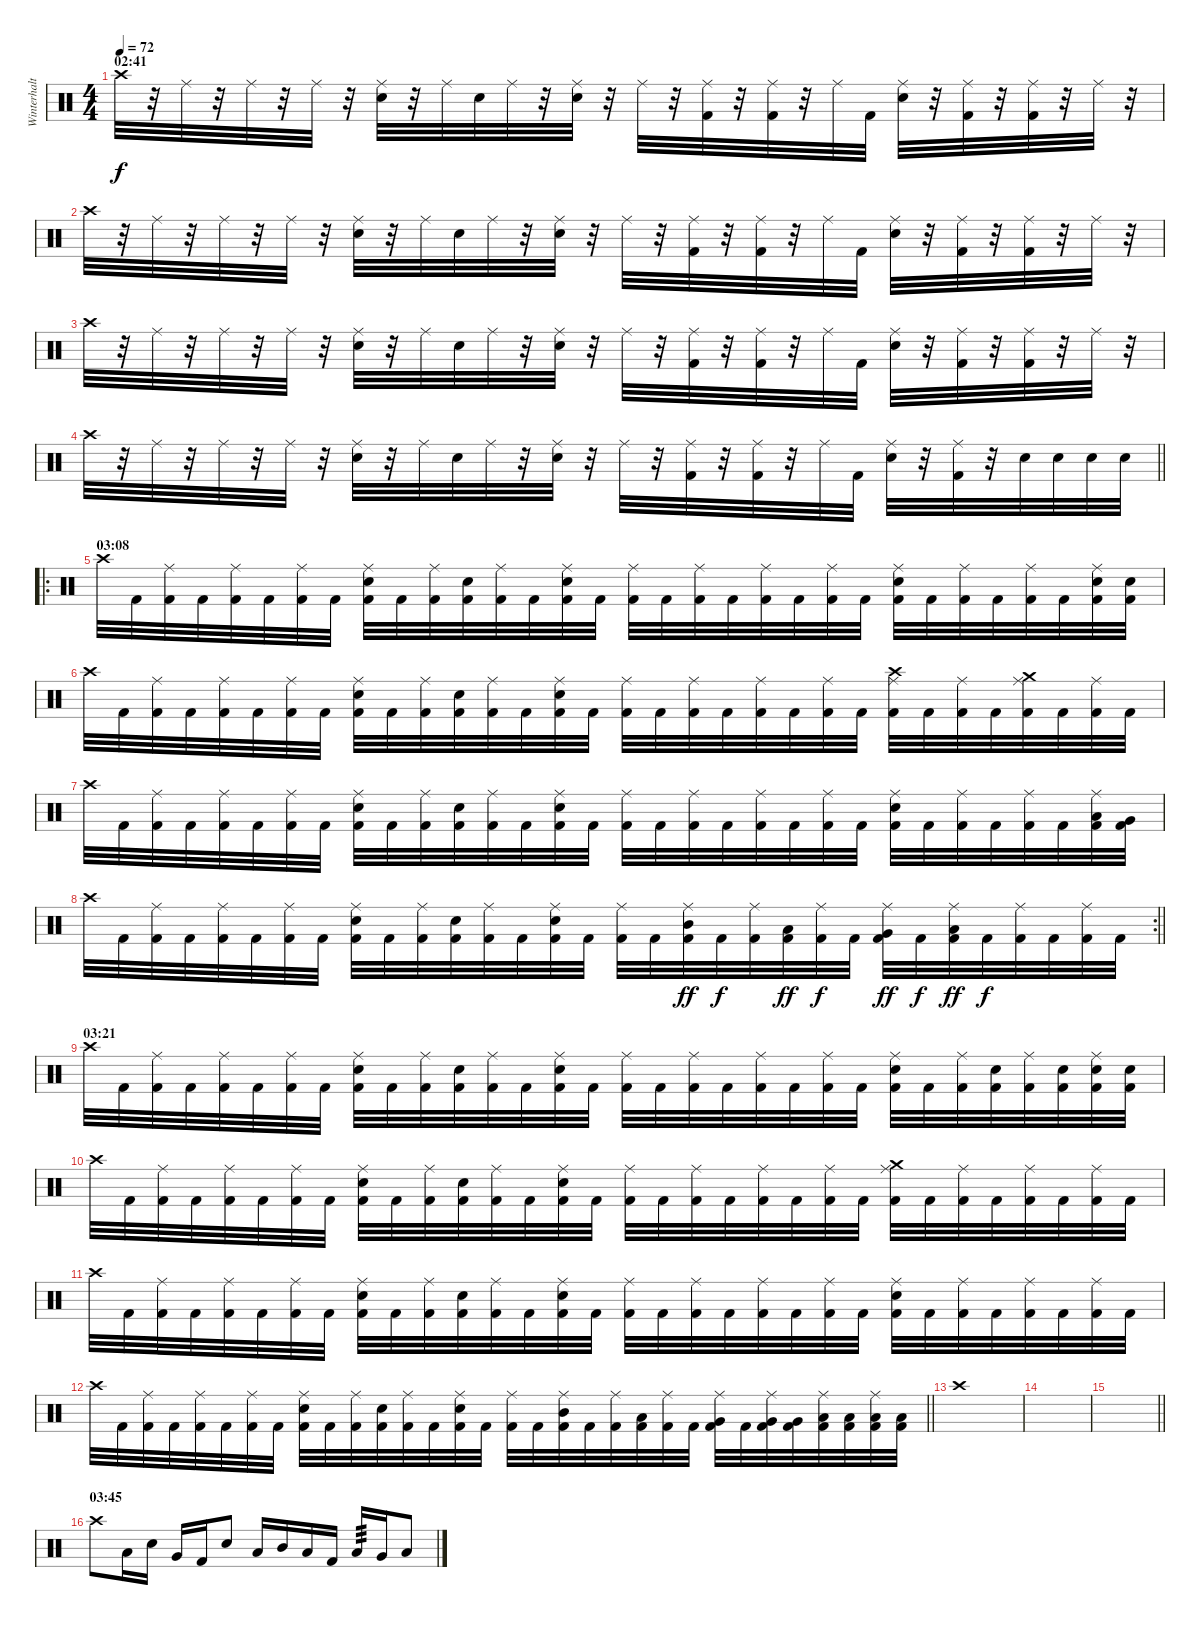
\track ("Winterhalten" "Winterhalt") {instrument percussion}
\staff {score}
\articulation defaults
\ts (4 4)
\section ("" "02:41")
\tempo 72
\clef neutral
\ks c "Crash high (hit)".32{dy f}
r.32 "Ride (middle)".32 r.32 "Ride (middle)".32 r.32 "Ride (middle)".32 r.32 ("Ride (middle)" "Electric Snare (hit)").32 r.32 "Ride (middle)".32 "Electric Snare (hit)".32 "Ride (middle)".32 r.32 ("Ride (middle)" "Electric Snare (hit)").32 r.32 "Ride (middle)".32 r.32 ("Ride (middle)" "Kick (hit) 2").32 r.32 ("Ride (middle)" "Kick (hit) 2").32 r.32 "Ride (middle)".32 "Kick (hit) 2".32 ("Ride (middle)" "Electric Snare (hit)").32 r.32 ("Ride (middle)" "Kick (hit) 2").32 r.32 ("Ride (middle)" "Kick (hit) 2").32 r.32 "Ride (middle)".32 r.32 |
"Crash high (hit)".32 r.32 "Ride (middle)".32 r.32 "Ride (middle)".32 r.32 "Ride (middle)".32 r.32 ("Ride (middle)" "Electric Snare (hit)").32 r.32 "Ride (middle)".32 "Electric Snare (hit)".32 "Ride (middle)".32 r.32 ("Ride (middle)" "Electric Snare (hit)").32 r.32 "Ride (middle)".32 r.32 ("Ride (middle)" "Kick (hit) 2").32 r.32 ("Ride (middle)" "Kick (hit) 2").32 r.32 "Ride (middle)".32 "Kick (hit) 2".32 ("Ride (middle)" "Electric Snare (hit)").32 r.32 ("Ride (middle)" "Kick (hit) 2").32 r.32 ("Ride (middle)" "Kick (hit) 2").32 r.32 "Ride (middle)".32 r.32 |
"Crash high (hit)".32 r.32 "Ride (middle)".32 r.32 "Ride (middle)".32 r.32 "Ride (middle)".32 r.32 ("Ride (middle)" "Electric Snare (hit)").32 r.32 "Ride (middle)".32 "Electric Snare (hit)".32 "Ride (middle)".32 r.32 ("Ride (middle)" "Electric Snare (hit)").32 r.32 "Ride (middle)".32 r.32 ("Ride (middle)" "Kick (hit) 2").32 r.32 ("Ride (middle)" "Kick (hit) 2").32 r.32 "Ride (middle)".32 "Kick (hit) 2".32 ("Ride (middle)" "Electric Snare (hit)").32 r.32 ("Ride (middle)" "Kick (hit) 2").32 r.32 ("Ride (middle)" "Kick (hit) 2").32 r.32 "Ride (middle)".32 r.32 |
\barLineRight lightlight "Crash high (hit)".32
r.32 "Ride (middle)".32 r.32 "Ride (middle)".32 r.32 "Ride (middle)".32 r.32 ("Ride (middle)" "Electric Snare (hit)").32 r.32 "Ride (middle)".32 "Electric Snare (hit)".32 "Ride (middle)".32 r.32 ("Ride (middle)" "Electric Snare (hit)").32 r.32 "Ride (middle)".32 r.32 ("Ride (middle)" "Kick (hit) 2").32 r.32 ("Ride (middle)" "Kick (hit) 2").32 r.32 "Ride (middle)".32 "Kick (hit) 2".32 ("Ride (middle)" "Electric Snare (hit)").32 r.32 ("Ride (middle)" "Kick (hit) 2").32 r.32 "Electric Snare (hit)".32 "Electric Snare (hit)".32 "Electric Snare (hit)".32 "Electric Snare (hit)".32 |
\ro
\section ("" "03:08")
"Crash high (hit)".32 "Kick (hit) 2".32 ("Ride (middle)" "Kick (hit) 2").32 "Kick (hit) 2".32 ("Ride (middle)" "Kick (hit) 2").32 "Kick (hit) 2".32 ("Ride (middle)" "Kick (hit) 2").32 "Kick (hit) 2".32 ("Ride (middle)" "Electric Snare (hit)" "Kick (hit) 2").32 "Kick (hit) 2".32 ("Ride (middle)" "Kick (hit) 2").32 ("Electric Snare (hit)" "Kick (hit) 2").32 ("Ride (middle)" "Kick (hit) 2").32 "Kick (hit) 2".32 ("Ride (middle)" "Electric Snare (hit)" "Kick (hit) 2").32 "Kick (hit) 2".32 ("Ride (middle)" "Kick (hit) 2").32 "Kick (hit) 2".32 ("Ride (middle)" "Kick (hit) 2").32 "Kick (hit) 2".32 ("Ride (middle)" "Kick (hit) 2").32 "Kick (hit) 2".32 ("Ride (middle)" "Kick (hit) 2").32 "Kick (hit) 2".32 ("Ride (middle)" "Electric Snare (hit)" "Kick (hit) 2").32 "Kick (hit) 2".32 ("Ride (middle)" "Kick (hit) 2").32 "Kick (hit) 2".32 ("Ride (middle)" "Kick (hit) 2").32 "Kick (hit) 2".32 ("Ride (middle)" "Electric Snare (hit)" "Kick (hit) 2").32 ("Electric Snare (hit)" "Kick (hit) 2").32 |
"Crash high (hit)".32 "Kick (hit) 2".32 ("Ride (middle)" "Kick (hit) 2").32 "Kick (hit) 2".32 ("Ride (middle)" "Kick (hit) 2").32 "Kick (hit) 2".32 ("Ride (middle)" "Kick (hit) 2").32 "Kick (hit) 2".32 ("Ride (middle)" "Electric Snare (hit)" "Kick (hit) 2").32 "Kick (hit) 2".32 ("Ride (middle)" "Kick (hit) 2").32 ("Electric Snare (hit)" "Kick (hit) 2").32 ("Ride (middle)" "Kick (hit) 2").32 "Kick (hit) 2".32 ("Ride (middle)" "Electric Snare (hit)" "Kick (hit) 2").32 "Kick (hit) 2".32 ("Ride (middle)" "Kick (hit) 2").32 "Kick (hit) 2".32 ("Ride (middle)" "Kick (hit) 2").32 "Kick (hit) 2".32 ("Ride (middle)" "Kick (hit) 2").32 "Kick (hit) 2".32 ("Ride (middle)" "Kick (hit) 2").32 "Kick (hit) 2".32 ("Crash high (hit)" "Ride (middle)" "Kick (hit) 2").32 "Kick (hit) 2".32 ("Ride (middle)" "Kick (hit) 2").32 "Kick (hit) 2".32 ("Crash medium (hit)" "Ride (middle)" "Kick (hit) 2").32 "Kick (hit) 2".32 ("Ride (middle)" "Kick (hit) 2").32 "Kick (hit) 2".32 |
"Crash high (hit)".32 "Kick (hit) 2".32 ("Ride (middle)" "Kick (hit) 2").32 "Kick (hit) 2".32 ("Ride (middle)" "Kick (hit) 2").32 "Kick (hit) 2".32 ("Ride (middle)" "Kick (hit) 2").32 "Kick (hit) 2".32 ("Ride (middle)" "Electric Snare (hit)" "Kick (hit) 2").32 "Kick (hit) 2".32 ("Ride (middle)" "Kick (hit) 2").32 ("Electric Snare (hit)" "Kick (hit) 2").32 ("Ride (middle)" "Kick (hit) 2").32 "Kick (hit) 2".32 ("Ride (middle)" "Electric Snare (hit)" "Kick (hit) 2").32 "Kick (hit) 2".32 ("Ride (middle)" "Kick (hit) 2").32 "Kick (hit) 2".32 ("Ride (middle)" "Kick (hit) 2").32 "Kick (hit) 2".32 ("Ride (middle)" "Kick (hit) 2").32 "Kick (hit) 2".32 ("Ride (middle)" "Kick (hit) 2").32 "Kick (hit) 2".32 ("Ride (middle)" "Electric Snare (hit)" "Kick (hit) 2").32 "Kick (hit) 2".32 ("Ride (middle)" "Kick (hit) 2").32 "Kick (hit) 2".32 ("Ride (middle)" "Kick (hit) 2").32 "Kick (hit) 2".32 ("Ride (middle)" "Low Tom (hit)" "Kick (hit) 2").32 ("Very Low Tom (hit)" "Kick (hit) 2").32 |
\rc 2
\barLineRight lightlight "Crash high (hit)".32 "Kick (hit) 2".32
("Ride (middle)" "Kick (hit) 2").32 "Kick (hit) 2".32 ("Ride (middle)" "Kick (hit) 2").32 "Kick (hit) 2".32 ("Ride (middle)" "Kick (hit) 2").32 "Kick (hit) 2".32 ("Ride (middle)" "Electric Snare (hit)" "Kick (hit) 2").32 "Kick (hit) 2".32 ("Ride (middle)" "Kick (hit) 2").32 ("Electric Snare (hit)" "Kick (hit) 2").32 ("Ride (middle)" "Kick (hit) 2").32 "Kick (hit) 2".32 ("Ride (middle)" "Electric Snare (hit)" "Kick (hit) 2").32 "Kick (hit) 2".32 ("Ride (middle)" "Kick (hit) 2").32 "Kick (hit) 2".32 ("Ride (middle)" "Mid Tom (hit)" "Kick (hit) 2").32{dy ff} "Kick (hit) 2".32{dy f} ("Ride (middle)" "Kick (hit) 2").32 ("Low Tom (hit)" "Kick (hit) 2").32{dy ff} ("Ride (middle)" "Kick (hit) 2").32{dy f} "Kick (hit) 2".32 ("Ride (middle)" "Very Low Tom (hit)" "Kick (hit) 2").32{dy ff} "Kick (hit) 2".32{dy f} ("Ride (middle)" "Low Floor Tom (hit)" "Kick (hit) 2").32{dy ff} "Kick (hit) 2".32{dy f} ("Ride (middle)" "Kick (hit) 2").32 "Kick (hit) 2".32 ("Ride (middle)" "Kick (hit) 2").32 "Kick (hit) 2".32 |
\section ("" "03:21")
"Crash high (hit)".32 "Kick (hit) 2".32 ("Ride (middle)" "Kick (hit) 2").32 "Kick (hit) 2".32 ("Ride (middle)" "Kick (hit) 2").32 "Kick (hit) 2".32 ("Ride (middle)" "Kick (hit) 2").32 "Kick (hit) 2".32 ("Ride (middle)" "Electric Snare (hit)" "Kick (hit) 2").32 "Kick (hit) 2".32 ("Ride (middle)" "Kick (hit) 2").32 ("Electric Snare (hit)" "Kick (hit) 2").32 ("Ride (middle)" "Kick (hit) 2").32 "Kick (hit) 2".32 ("Ride (middle)" "Electric Snare (hit)" "Kick (hit) 2").32 "Kick (hit) 2".32 ("Ride (middle)" "Kick (hit) 2").32 "Kick (hit) 2".32 ("Ride (middle)" "Kick (hit) 2").32 "Kick (hit) 2".32 ("Ride (middle)" "Kick (hit) 2").32 "Kick (hit) 2".32 ("Ride (middle)" "Kick (hit) 2").32 "Kick (hit) 2".32 ("Ride (middle)" "Electric Snare (hit)" "Kick (hit) 2").32 "Kick (hit) 2".32 ("Ride (middle)" "Kick (hit) 2").32 ("Electric Snare (hit)" "Kick (hit) 2").32 ("Ride (middle)" "Kick (hit) 2").32 ("Electric Snare (hit)" "Kick (hit) 2").32 ("Ride (middle)" "Electric Snare (hit)" "Kick (hit) 2").32 ("Electric Snare (hit)" "Kick (hit) 2").32 |
"Crash high (hit)".32 "Kick (hit) 2".32 ("Ride (middle)" "Kick (hit) 2").32 "Kick (hit) 2".32 ("Ride (middle)" "Kick (hit) 2").32 "Kick (hit) 2".32 ("Ride (middle)" "Kick (hit) 2").32 "Kick (hit) 2".32 ("Ride (middle)" "Electric Snare (hit)" "Kick (hit) 2").32 "Kick (hit) 2".32 ("Ride (middle)" "Kick (hit) 2").32 ("Electric Snare (hit)" "Kick (hit) 2").32 ("Ride (middle)" "Kick (hit) 2").32 "Kick (hit) 2".32 ("Ride (middle)" "Electric Snare (hit)" "Kick (hit) 2").32 "Kick (hit) 2".32 ("Ride (middle)" "Kick (hit) 2").32 "Kick (hit) 2".32 ("Ride (middle)" "Kick (hit) 2").32 "Kick (hit) 2".32 ("Ride (middle)" "Kick (hit) 2").32 "Kick (hit) 2".32 ("Ride (middle)" "Kick (hit) 2").32 "Kick (hit) 2".32 ("Crash medium (hit)" "Ride (middle)" "Kick (hit) 2").32 "Kick (hit) 2".32 ("Ride (middle)" "Kick (hit) 2").32 "Kick (hit) 2".32 ("Ride (middle)" "Kick (hit) 2").32 "Kick (hit) 2".32 ("Ride (middle)" "Kick (hit) 2").32 "Kick (hit) 2".32 |
"Crash high (hit)".32 "Kick (hit) 2".32 ("Ride (middle)" "Kick (hit) 2").32 "Kick (hit) 2".32 ("Ride (middle)" "Kick (hit) 2").32 "Kick (hit) 2".32 ("Ride (middle)" "Kick (hit) 2").32 "Kick (hit) 2".32 ("Ride (middle)" "Electric Snare (hit)" "Kick (hit) 2").32 "Kick (hit) 2".32 ("Ride (middle)" "Kick (hit) 2").32 ("Electric Snare (hit)" "Kick (hit) 2").32 ("Ride (middle)" "Kick (hit) 2").32 "Kick (hit) 2".32 ("Ride (middle)" "Electric Snare (hit)" "Kick (hit) 2").32 "Kick (hit) 2".32 ("Ride (middle)" "Kick (hit) 2").32 "Kick (hit) 2".32 ("Ride (middle)" "Kick (hit) 2").32 "Kick (hit) 2".32 ("Ride (middle)" "Kick (hit) 2").32 "Kick (hit) 2".32 ("Ride (middle)" "Kick (hit) 2").32 "Kick (hit) 2".32 ("Ride (middle)" "Electric Snare (hit)" "Kick (hit) 2").32 "Kick (hit) 2".32 ("Ride (middle)" "Kick (hit) 2").32 "Kick (hit) 2".32 ("Ride (middle)" "Kick (hit) 2").32 "Kick (hit) 2".32 ("Ride (middle)" "Kick (hit) 2").32 "Kick (hit) 2".32 |
\barLineRight lightlight "Crash high (hit)".32 "Kick (hit) 2".32
("Ride (middle)" "Kick (hit) 2").32 "Kick (hit) 2".32 ("Ride (middle)" "Kick (hit) 2").32 "Kick (hit) 2".32 ("Ride (middle)" "Kick (hit) 2").32 "Kick (hit) 2".32 ("Ride (middle)" "Electric Snare (hit)" "Kick (hit) 2").32 "Kick (hit) 2".32 ("Ride (middle)" "Kick (hit) 2").32 ("Electric Snare (hit)" "Kick (hit) 2").32 ("Ride (middle)" "Kick (hit) 2").32 "Kick (hit) 2".32 ("Ride (middle)" "Electric Snare (hit)" "Kick (hit) 2").32 "Kick (hit) 2".32 ("Ride (middle)" "Kick (hit) 2").32 "Kick (hit) 2".32 ("Ride (middle)" "Mid Tom (hit)" "Kick (hit) 2").32 "Kick (hit) 2".32 ("Ride (middle)" "Kick (hit) 2").32 ("Low Tom (hit)" "Kick (hit) 2").32 ("Ride (middle)" "Kick (hit) 2").32 "Kick (hit) 2".32 ("Ride (middle)" "Very Low Tom (hit)" "Kick (hit) 2").32 "Kick (hit) 2".32 ("Ride (middle)" "Very Low Tom (hit)" "Kick (hit) 2").32 ("Very Low Tom (hit)" "Kick (hit) 2").32 ("Ride (middle)" "Low Floor Tom (hit)" "Kick (hit) 2").32 ("Low Floor Tom (hit)" "Kick (hit) 2").32 ("Ride (middle)" "Low Floor Tom (hit)" "Kick (hit) 2").32 ("Low Floor Tom (hit)" "Kick (hit) 2").32 |
"Crash high (hit)".1 |
|
\barLineRight lightlight
|
\section ("" "03:45")
"Crash high (hit)".8 "Low Tom (hit)".16 "Electric Snare (hit)".16 "Very Low Tom (hit)".16 "Kick (hit) 2".16 "Electric Snare (hit)".8 "Low Tom (hit)".16 "Mid Tom (hit)".16 "Low Tom (hit)".16 "Kick (hit) 2".16 "Low Tom (hit)".16{tp 3} "Very Low Tom (hit)".16 "Low Floor Tom (hit)".8
